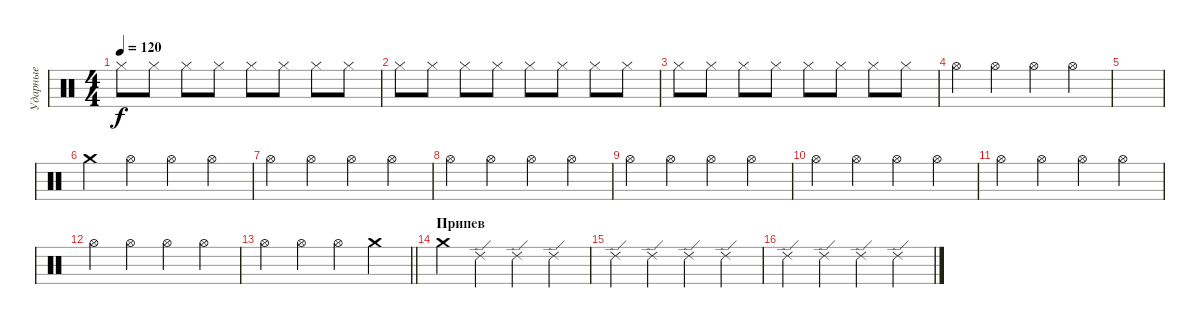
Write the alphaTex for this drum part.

\track ("Ударные" "Ударные") {instrument percussion}
\staff {score}
\articulation defaults
\ts (4 4)
\tempo 120
\clef neutral
\ks c "Hi-Hat (closed)".8{dy f} "Hi-Hat (closed)".8 "Hi-Hat (closed)".8 "Hi-Hat (closed)".8 "Hi-Hat (closed)".8 "Hi-Hat (closed)".8 "Hi-Hat (closed)".8 "Hi-Hat (closed)".8
|
"Hi-Hat (closed)".8 "Hi-Hat (closed)".8 "Hi-Hat (closed)".8 "Hi-Hat (closed)".8 "Hi-Hat (closed)".8 "Hi-Hat (closed)".8 "Hi-Hat (closed)".8 "Hi-Hat (closed)".8 |
"Hi-Hat (closed)".8 "Hi-Hat (closed)".8 "Hi-Hat (closed)".8 "Hi-Hat (closed)".8 "Hi-Hat (closed)".8 "Hi-Hat (closed)".8 "Hi-Hat (closed)".8 "Hi-Hat (closed)".8 |
"Hi-Hat (open)".4 "Hi-Hat (open)".4 "Hi-Hat (open)".4 "Hi-Hat (open)".4 |
|
"Crash medium (hit)".4 "Hi-Hat (open)".4 "Hi-Hat (open)".4 "Hi-Hat (open)".4 |
"Hi-Hat (open)".4 "Hi-Hat (open)".4 "Hi-Hat (open)".4 "Hi-Hat (open)".4 |
"Hi-Hat (open)".4 "Hi-Hat (open)".4 "Hi-Hat (open)".4 "Hi-Hat (open)".4 |
"Hi-Hat (open)".4 "Hi-Hat (open)".4 "Hi-Hat (open)".4 "Hi-Hat (open)".4 |
"Hi-Hat (open)".4 "Hi-Hat (open)".4 "Hi-Hat (open)".4 "Hi-Hat (open)".4 |
"Hi-Hat (open)".4 "Hi-Hat (open)".4 "Hi-Hat (open)".4 "Hi-Hat (open)".4 |
"Hi-Hat (open)".4 "Hi-Hat (open)".4 "Hi-Hat (open)".4 "Hi-Hat (open)".4 |
\barLineRight lightlight "Hi-Hat (open)".4 "Hi-Hat (open)".4 "Hi-Hat (open)".4 "Crash medium (hit)".4
|
\section ("" "Припев")
"Crash medium (hit)".4 "Ride (edge) 2".4 "Ride (edge) 2".4 "Ride (edge) 2".4 |
"Ride (edge) 2".4 "Ride (edge) 2".4 "Ride (edge) 2".4 "Ride (edge) 2".4 |
"Ride (edge) 2".4 "Ride (edge) 2".4 "Ride (edge) 2".4 "Ride (edge) 2".4
